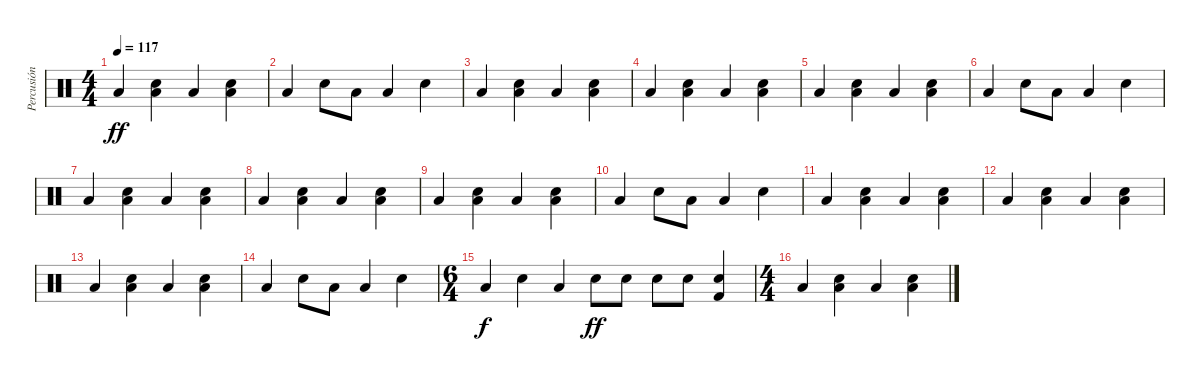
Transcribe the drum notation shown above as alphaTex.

\track ("Percusión" "Percusión") {instrument percussion}
\staff {score}
\articulation defaults
\ts (4 4)
\tempo 117
\clef neutral
\ks c "Low Floor Tom (hit)".4{dy ff}
("Snare (hit) 2" "Low Floor Tom (hit)").4 "Low Floor Tom (hit)".4 ("Snare (hit) 2" "Low Floor Tom (hit)").4 |
"Low Floor Tom (hit)".4 "Snare (hit) 2".8 "Low Floor Tom (hit)".8 "Low Floor Tom (hit)".4 "Snare (hit) 2".4 |
"Low Floor Tom (hit)".4 ("Snare (hit) 2" "Low Floor Tom (hit)").4 "Low Floor Tom (hit)".4 ("Snare (hit) 2" "Low Floor Tom (hit)").4 |
"Low Floor Tom (hit)".4 ("Snare (hit) 2" "Low Floor Tom (hit)").4 "Low Floor Tom (hit)".4 ("Snare (hit) 2" "Low Floor Tom (hit)").4 |
"Low Floor Tom (hit)".4 ("Snare (hit) 2" "Low Floor Tom (hit)").4 "Low Floor Tom (hit)".4 ("Snare (hit) 2" "Low Floor Tom (hit)").4 |
"Low Floor Tom (hit)".4 "Snare (hit) 2".8 "Low Floor Tom (hit)".8 "Low Floor Tom (hit)".4 "Snare (hit) 2".4 |
"Low Floor Tom (hit)".4 ("Snare (hit) 2" "Low Floor Tom (hit)").4 "Low Floor Tom (hit)".4 ("Snare (hit) 2" "Low Floor Tom (hit)").4 |
"Low Floor Tom (hit)".4 ("Snare (hit) 2" "Low Floor Tom (hit)").4 "Low Floor Tom (hit)".4 ("Snare (hit) 2" "Low Floor Tom (hit)").4 |
"Low Floor Tom (hit)".4 ("Snare (hit) 2" "Low Floor Tom (hit)").4 "Low Floor Tom (hit)".4 ("Snare (hit) 2" "Low Floor Tom (hit)").4 |
"Low Floor Tom (hit)".4 "Snare (hit) 2".8 "Low Floor Tom (hit)".8 "Low Floor Tom (hit)".4 "Snare (hit) 2".4 |
"Low Floor Tom (hit)".4 ("Snare (hit) 2" "Low Floor Tom (hit)").4 "Low Floor Tom (hit)".4 ("Snare (hit) 2" "Low Floor Tom (hit)").4 |
"Low Floor Tom (hit)".4 ("Snare (hit) 2" "Low Floor Tom (hit)").4 "Low Floor Tom (hit)".4 ("Snare (hit) 2" "Low Floor Tom (hit)").4 |
"Low Floor Tom (hit)".4 ("Snare (hit) 2" "Low Floor Tom (hit)").4 "Low Floor Tom (hit)".4 ("Snare (hit) 2" "Low Floor Tom (hit)").4 |
"Low Floor Tom (hit)".4 "Snare (hit) 2".8 "Low Floor Tom (hit)".8 "Low Floor Tom (hit)".4 "Snare (hit) 2".4 |
\ts (6 4)
"Low Floor Tom (hit)".4{dy f} "Snare (hit) 2".4 "Low Floor Tom (hit)".4 "Snare (hit) 2".8{dy ff} "Snare (hit) 2".8 "Snare (hit) 2".8 "Snare (hit) 2".8 ("Kick (hit) 2" "Electric Snare (hit)").4 |
\ts (4 4)
"Low Floor Tom (hit)".4 ("Snare (hit) 2" "Low Floor Tom (hit)").4 "Low Floor Tom (hit)".4 ("Snare (hit) 2" "Low Floor Tom (hit)").4
